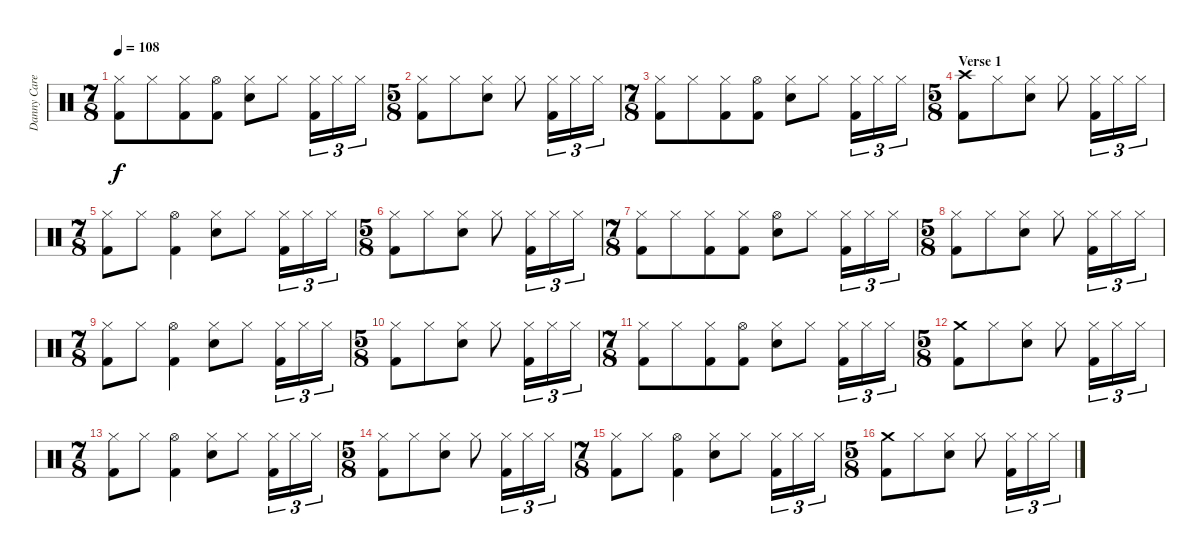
\track ("Danny Carey" "Danny Care") {instrument percussion}
\staff {score}
\articulation defaults
\ts (7 8)
\tempo 108
\clef neutral
\ks c
("Hi-Hat (closed)" "Kick (hit) 2").8{dy f} "Hi-Hat (closed)".8 ("Hi-Hat (closed)" "Kick (hit) 2").8 ("Hi-Hat (open)" "Kick (hit) 2").8 ("Hi-Hat (closed)" "Electric Snare (hit)").8 "Hi-Hat (closed)".8 ("Hi-Hat (closed)" "Kick (hit) 2").16{tu (3 2)} "Hi-Hat (closed)".16{tu (3 2)} "Hi-Hat (closed)".16{tu (3 2)} |
\ts (5 8)
("Hi-Hat (closed)" "Kick (hit) 2").8 "Hi-Hat (closed)".8 ("Hi-Hat (closed)" "Electric Snare (hit)").8 "Hi-Hat (closed)".8 ("Hi-Hat (closed)" "Kick (hit) 2").16{tu (3 2)} "Hi-Hat (closed)".16{tu (3 2)} "Hi-Hat (closed)".16{tu (3 2)} |
\ts (7 8)
("Hi-Hat (closed)" "Kick (hit) 2").8 "Hi-Hat (closed)".8 ("Hi-Hat (closed)" "Kick (hit) 2").8 ("Hi-Hat (open)" "Kick (hit) 2").8 ("Hi-Hat (closed)" "Electric Snare (hit)").8 "Hi-Hat (closed)".8 ("Hi-Hat (closed)" "Kick (hit) 2").16{tu (3 2)} "Hi-Hat (closed)".16{tu (3 2)} "Hi-Hat (closed)".16{tu (3 2)} |
\ts (5 8)
\section ("" "Verse 1")
("Crash high (hit)" "Kick (hit) 2").8 "Hi-Hat (closed)".8 ("Hi-Hat (closed)" "Electric Snare (hit)").8 "Hi-Hat (closed)".8 ("Hi-Hat (closed)" "Kick (hit) 2").16{tu (3 2)} "Hi-Hat (closed)".16{tu (3 2)} "Hi-Hat (closed)".16{tu (3 2)} |
\ts (7 8)
("Hi-Hat (closed)" "Kick (hit) 2").8 "Hi-Hat (closed)".8 ("Hi-Hat (open)" "Kick (hit) 2").4 ("Hi-Hat (closed)" "Electric Snare (hit)").8 "Hi-Hat (closed)".8 ("Hi-Hat (closed)" "Kick (hit) 2").16{tu (3 2)} "Hi-Hat (closed)".16{tu (3 2)} "Hi-Hat (closed)".16{tu (3 2)} |
\ts (5 8)
("Hi-Hat (closed)" "Kick (hit) 2").8 "Hi-Hat (closed)".8 ("Hi-Hat (closed)" "Electric Snare (hit)").8 "Hi-Hat (closed)".8 ("Hi-Hat (closed)" "Kick (hit) 2").16{tu (3 2)} "Hi-Hat (closed)".16{tu (3 2)} "Hi-Hat (closed)".16{tu (3 2)} |
\ts (7 8)
("Hi-Hat (closed)" "Kick (hit) 2").8 "Hi-Hat (closed)".8 ("Hi-Hat (closed)" "Kick (hit) 2").8 ("Hi-Hat (closed)" "Kick (hit) 2").8 ("Hi-Hat (open)" "Electric Snare (hit)").8 "Hi-Hat (closed)".8 ("Hi-Hat (closed)" "Kick (hit) 2").16{tu (3 2)} "Hi-Hat (closed)".16{tu (3 2)} "Hi-Hat (closed)".16{tu (3 2)} |
\ts (5 8)
("Hi-Hat (closed)" "Kick (hit) 2").8 "Hi-Hat (closed)".8 ("Hi-Hat (closed)" "Electric Snare (hit)").8 "Hi-Hat (closed)".8 ("Hi-Hat (closed)" "Kick (hit) 2").16{tu (3 2)} "Hi-Hat (closed)".16{tu (3 2)} "Hi-Hat (closed)".16{tu (3 2)} |
\ts (7 8)
("Hi-Hat (closed)" "Kick (hit) 2").8 "Hi-Hat (closed)".8 ("Hi-Hat (open)" "Kick (hit) 2").4 ("Hi-Hat (closed)" "Electric Snare (hit)").8 "Hi-Hat (closed)".8 ("Hi-Hat (closed)" "Kick (hit) 2").16{tu (3 2)} "Hi-Hat (closed)".16{tu (3 2)} "Hi-Hat (closed)".16{tu (3 2)} |
\ts (5 8)
("Hi-Hat (closed)" "Kick (hit) 2").8 "Hi-Hat (closed)".8 ("Hi-Hat (closed)" "Electric Snare (hit)").8 "Hi-Hat (closed)".8 ("Hi-Hat (closed)" "Kick (hit) 2").16{tu (3 2)} "Hi-Hat (closed)".16{tu (3 2)} "Hi-Hat (closed)".16{tu (3 2)} |
\ts (7 8)
("Hi-Hat (closed)" "Kick (hit) 2").8 "Hi-Hat (closed)".8 ("Hi-Hat (closed)" "Kick (hit) 2").8 ("Hi-Hat (open)" "Kick (hit) 2").8 ("Hi-Hat (closed)" "Electric Snare (hit)").8 "Hi-Hat (closed)".8 ("Hi-Hat (closed)" "Kick (hit) 2").16{tu (3 2)} "Hi-Hat (closed)".16{tu (3 2)} "Hi-Hat (closed)".16{tu (3 2)} |
\ts (5 8)
("Crash medium (hit)" "Kick (hit) 2").8 "Hi-Hat (closed)".8 ("Hi-Hat (closed)" "Electric Snare (hit)").8 "Hi-Hat (closed)".8 ("Hi-Hat (closed)" "Kick (hit) 2").16{tu (3 2)} "Hi-Hat (closed)".16{tu (3 2)} "Hi-Hat (closed)".16{tu (3 2)} |
\ts (7 8)
("Hi-Hat (closed)" "Kick (hit) 2").8 "Hi-Hat (closed)".8 ("Hi-Hat (open)" "Kick (hit) 2").4 ("Hi-Hat (closed)" "Electric Snare (hit)").8 "Hi-Hat (closed)".8 ("Hi-Hat (closed)" "Kick (hit) 2").16{tu (3 2)} "Hi-Hat (closed)".16{tu (3 2)} "Hi-Hat (closed)".16{tu (3 2)} |
\ts (5 8)
("Hi-Hat (closed)" "Kick (hit) 2").8 "Hi-Hat (closed)".8 ("Hi-Hat (closed)" "Electric Snare (hit)").8 "Hi-Hat (closed)".8 ("Hi-Hat (closed)" "Kick (hit) 2").16{tu (3 2)} "Hi-Hat (closed)".16{tu (3 2)} "Hi-Hat (closed)".16{tu (3 2)} |
\ts (7 8)
("Hi-Hat (closed)" "Kick (hit) 2").8 "Hi-Hat (closed)".8 ("Hi-Hat (open)" "Kick (hit) 2").4 ("Hi-Hat (closed)" "Electric Snare (hit)").8 "Hi-Hat (closed)".8 ("Hi-Hat (closed)" "Kick (hit) 2").16{tu (3 2)} "Hi-Hat (closed)".16{tu (3 2)} "Hi-Hat (closed)".16{tu (3 2)} |
\ts (5 8)
("Crash medium (hit)" "Kick (hit) 2").8 "Hi-Hat (closed)".8 ("Hi-Hat (closed)" "Electric Snare (hit)").8 "Hi-Hat (closed)".8 ("Hi-Hat (closed)" "Kick (hit) 2").16{tu (3 2)} "Hi-Hat (closed)".16{tu (3 2)} "Hi-Hat (closed)".16{tu (3 2)}
